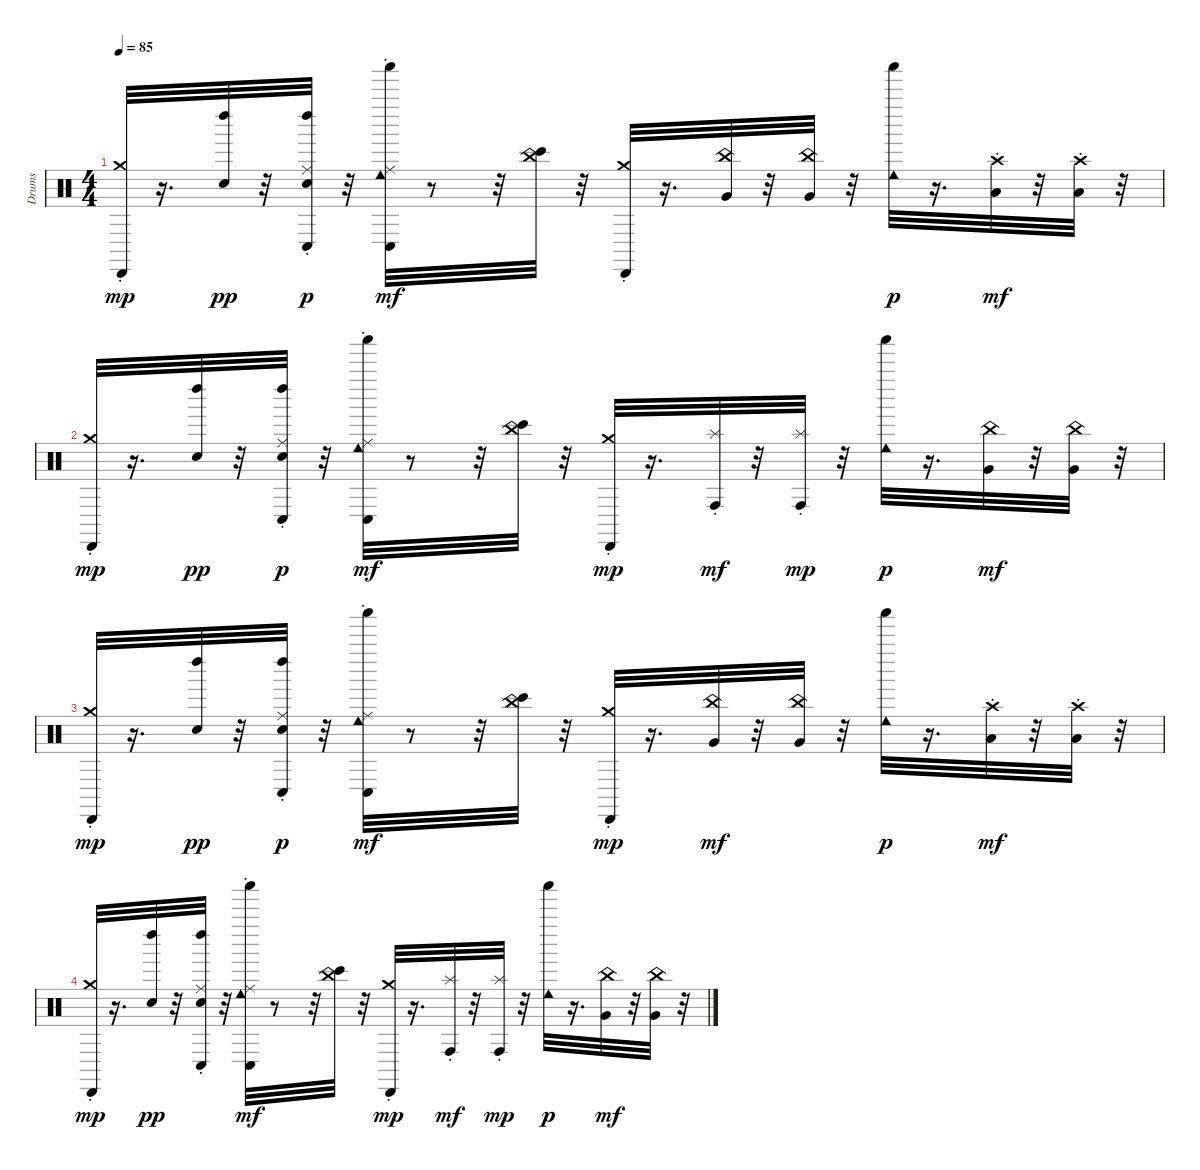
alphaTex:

\track ("Drums" "Drums") {instrument percussion}
\staff {score}
\articulation defaults
\ts (4 4)
\tempo 85
\clef neutral
\ks c
("Cabasa (hit)" "Crash medium (choke)").32{dy mp} r.16{d} ("Left Maraca (hit)" "Snare (hit)").32{dy pp} r.32 ("Conga low (hit)" "Ride (choke)" "Left Maraca (hit)" "Snare (hit)").32{dy p} r.32 ("Cowbell low (hit)" "Shaker (hit)" "Ride (choke)" "Conga low (hit)").32{dy mf} r.8 r.32 ("China (choke)" "Bongo High (hit)").32 r.32 ("Crash medium (choke)" "Cabasa (hit)").32 r.16{d} ("China (choke)" "Very Low Tom (hit)").32 r.32 ("China (choke)" "Very Low Tom (hit)").32 r.32 ("Shaker (hit)" "Cowbell low (hit)").32{dy p} r.16{d} ("Low Floor Tom (hit)" "Crash high (choke)").32{dy mf} r.32 ("Crash high (choke)" "Low Floor Tom (hit)").32 r.32 |
("Cabasa (hit)" "Crash medium (choke)").32{dy mp} r.16{d} ("Left Maraca (hit)" "Snare (hit)").32{dy pp} r.32 ("Ride (choke)" "Conga low (hit)" "Snare (hit)" "Left Maraca (hit)").32{dy p} r.32 ("Cowbell low (hit)" "Shaker (hit)" "Ride (choke)" "Conga low (hit)").32{dy mf} r.8 r.32 ("Bongo High (hit)" "China (choke)").32 r.32 ("Cabasa (hit)" "Crash medium (choke)").32{dy mp} r.16{d} ("Conga high (hit)" "Splash (choke)").32{dy mf} r.32 ("Conga high (hit)" "Splash (choke)").32{dy mp} r.32 ("Shaker (hit)" "Cowbell low (hit)").32{dy p} r.16{d} ("China (choke)" "Very Low Tom (hit)").32{dy mf} r.32 ("Very Low Tom (hit)" "China (choke)").32 r.32 |
("Cabasa (hit)" "Crash medium (choke)").32{dy mp} r.16{d} ("Left Maraca (hit)" "Snare (hit)").32{dy pp} r.32 ("Ride (choke)" "Conga low (hit)" "Left Maraca (hit)" "Snare (hit)").32{dy p} r.32 ("Shaker (hit)" "Cowbell low (hit)" "Ride (choke)" "Conga low (hit)").32{dy mf} r.8 r.32 ("China (choke)" "Bongo High (hit)").32 r.32 ("Cabasa (hit)" "Crash medium (choke)").32{dy mp} r.16{d} ("China (choke)" "Very Low Tom (hit)").32{dy mf} r.32 ("Very Low Tom (hit)" "China (choke)").32 r.32 ("Shaker (hit)" "Cowbell low (hit)").32{dy p} r.16{d} ("Crash high (choke)" "Low Floor Tom (hit)").32{dy mf} r.32 ("Crash high (choke)" "Low Floor Tom (hit)").32 r.32 |
("Cabasa (hit)" "Crash medium (choke)").32{dy mp} r.16{d} ("Left Maraca (hit)" "Snare (hit)").32{dy pp} r.32 ("Ride (choke)" "Conga low (hit)" "Left Maraca (hit)" "Snare (hit)").32 r.32 ("Cowbell low (hit)" "Shaker (hit)" "Ride (choke)" "Conga low (hit)").32{dy mf} r.8 r.32 ("Bongo High (hit)" "China (choke)").32 r.32 ("Cabasa (hit)" "Crash medium (choke)").32{dy mp} r.16{d} ("Conga high (hit)" "Splash (choke)").32{dy mf} r.32 ("Conga high (hit)" "Splash (choke)").32{dy mp} r.32 ("Shaker (hit)" "Cowbell low (hit)").32{dy p} r.16{d} ("Very Low Tom (hit)" "China (choke)").32{dy mf} r.32 ("China (choke)" "Very Low Tom (hit)").32 r.32
